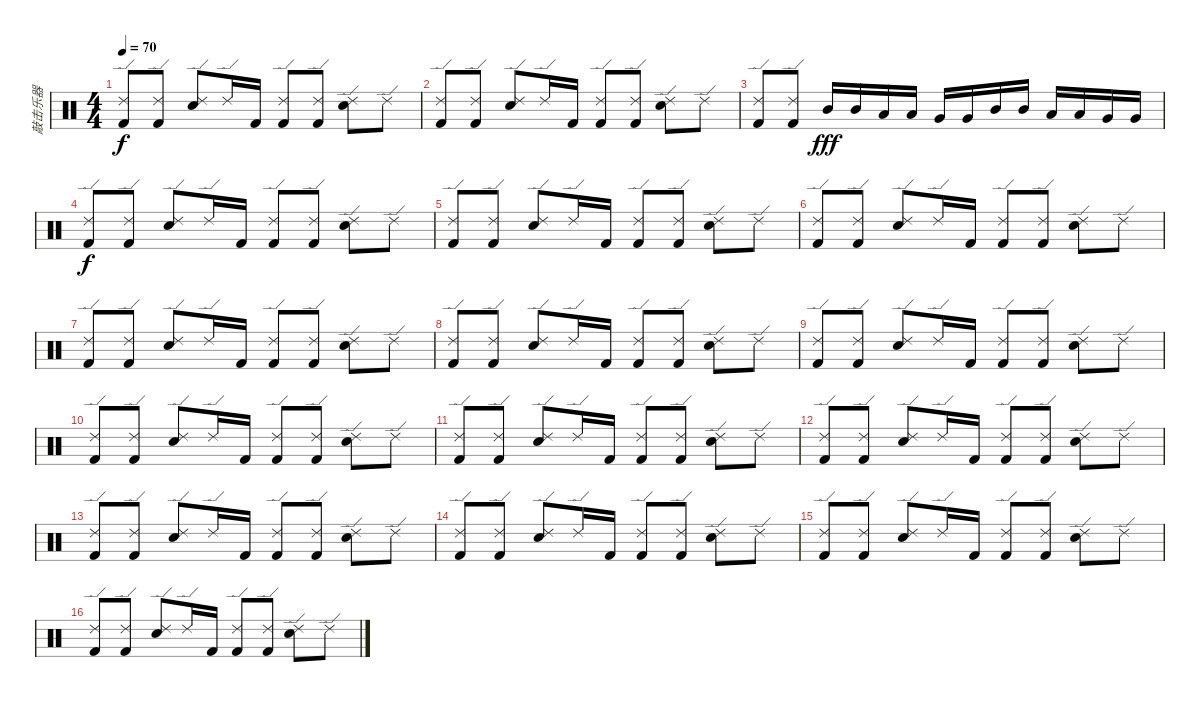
\track ("敲击乐器" "敲击乐器") {instrument percussion}
\staff {score}
\articulation defaults
\ts (4 4)
\tempo 70
\clef neutral
\ks c
("Ride (edge) 2" "Kick (hit) 2").8{dy f} ("Ride (edge) 2" "Kick (hit) 2").8 ("Ride (edge) 2" "Snare (hit) 2").8 "Ride (edge) 2".16 "Kick (hit) 2".16 ("Ride (edge) 2" "Kick (hit) 2").8 ("Ride (edge) 2" "Kick (hit) 2").8 ("Ride (edge) 2" "Snare (hit) 2").8 "Ride (edge) 2".8 |
("Ride (edge) 2" "Kick (hit) 2").8 ("Ride (edge) 2" "Kick (hit) 2").8 ("Ride (edge) 2" "Snare (hit) 2").8 "Ride (edge) 2".16 "Kick (hit) 2".16 ("Ride (edge) 2" "Kick (hit) 2").8 ("Ride (edge) 2" "Kick (hit) 2").8 ("Ride (edge) 2" "Snare (hit) 2").8 "Ride (edge) 2".8 |
("Ride (edge) 2" "Kick (hit) 2").8 ("Ride (edge) 2" "Kick (hit) 2").8 "Mid Tom (hit)".16{dy fff} "Mid Tom (hit)".16 "Low Tom (hit)".16 "Low Tom (hit)".16 "Very Low Tom (hit)".16 "Very Low Tom (hit)".16 "Mid Tom (hit)".16 "Mid Tom (hit)".16 "Low Tom (hit)".16 "Low Tom (hit)".16 "Very Low Tom (hit)".16 "Very Low Tom (hit)".16 |
("Ride (edge) 2" "Kick (hit) 2").8{dy f} ("Ride (edge) 2" "Kick (hit) 2").8 ("Ride (edge) 2" "Snare (hit) 2").8 "Ride (edge) 2".16 "Kick (hit) 2".16 ("Ride (edge) 2" "Kick (hit) 2").8 ("Ride (edge) 2" "Kick (hit) 2").8 ("Ride (edge) 2" "Snare (hit) 2").8 "Ride (edge) 2".8 |
("Ride (edge) 2" "Kick (hit) 2").8 ("Ride (edge) 2" "Kick (hit) 2").8 ("Ride (edge) 2" "Snare (hit) 2").8 "Ride (edge) 2".16 "Kick (hit) 2".16 ("Ride (edge) 2" "Kick (hit) 2").8 ("Ride (edge) 2" "Kick (hit) 2").8 ("Ride (edge) 2" "Snare (hit) 2").8 "Ride (edge) 2".8 |
("Ride (edge) 2" "Kick (hit) 2").8 ("Ride (edge) 2" "Kick (hit) 2").8 ("Ride (edge) 2" "Snare (hit) 2").8 "Ride (edge) 2".16 "Kick (hit) 2".16 ("Ride (edge) 2" "Kick (hit) 2").8 ("Ride (edge) 2" "Kick (hit) 2").8 ("Ride (edge) 2" "Snare (hit) 2").8 "Ride (edge) 2".8 |
("Ride (edge) 2" "Kick (hit) 2").8 ("Ride (edge) 2" "Kick (hit) 2").8 ("Ride (edge) 2" "Snare (hit) 2").8 "Ride (edge) 2".16 "Kick (hit) 2".16 ("Ride (edge) 2" "Kick (hit) 2").8 ("Ride (edge) 2" "Kick (hit) 2").8 ("Ride (edge) 2" "Snare (hit) 2").8 "Ride (edge) 2".8 |
("Ride (edge) 2" "Kick (hit) 2").8 ("Ride (edge) 2" "Kick (hit) 2").8 ("Ride (edge) 2" "Snare (hit) 2").8 "Ride (edge) 2".16 "Kick (hit) 2".16 ("Ride (edge) 2" "Kick (hit) 2").8 ("Ride (edge) 2" "Kick (hit) 2").8 ("Ride (edge) 2" "Snare (hit) 2").8 "Ride (edge) 2".8 |
("Ride (edge) 2" "Kick (hit) 2").8 ("Ride (edge) 2" "Kick (hit) 2").8 ("Ride (edge) 2" "Snare (hit) 2").8 "Ride (edge) 2".16 "Kick (hit) 2".16 ("Ride (edge) 2" "Kick (hit) 2").8 ("Ride (edge) 2" "Kick (hit) 2").8 ("Ride (edge) 2" "Snare (hit) 2").8 "Ride (edge) 2".8 |
("Ride (edge) 2" "Kick (hit) 2").8 ("Ride (edge) 2" "Kick (hit) 2").8 ("Ride (edge) 2" "Snare (hit) 2").8 "Ride (edge) 2".16 "Kick (hit) 2".16 ("Ride (edge) 2" "Kick (hit) 2").8 ("Ride (edge) 2" "Kick (hit) 2").8 ("Ride (edge) 2" "Snare (hit) 2").8 "Ride (edge) 2".8 |
("Ride (edge) 2" "Kick (hit) 2").8 ("Ride (edge) 2" "Kick (hit) 2").8 ("Ride (edge) 2" "Snare (hit) 2").8 "Ride (edge) 2".16 "Kick (hit) 2".16 ("Ride (edge) 2" "Kick (hit) 2").8 ("Ride (edge) 2" "Kick (hit) 2").8 ("Ride (edge) 2" "Snare (hit) 2").8 "Ride (edge) 2".8 |
("Ride (edge) 2" "Kick (hit) 2").8 ("Ride (edge) 2" "Kick (hit) 2").8 ("Ride (edge) 2" "Snare (hit) 2").8 "Ride (edge) 2".16 "Kick (hit) 2".16 ("Ride (edge) 2" "Kick (hit) 2").8 ("Ride (edge) 2" "Kick (hit) 2").8 ("Ride (edge) 2" "Snare (hit) 2").8 "Ride (edge) 2".8 |
("Ride (edge) 2" "Kick (hit) 2").8 ("Ride (edge) 2" "Kick (hit) 2").8 ("Ride (edge) 2" "Snare (hit) 2").8 "Ride (edge) 2".16 "Kick (hit) 2".16 ("Ride (edge) 2" "Kick (hit) 2").8 ("Ride (edge) 2" "Kick (hit) 2").8 ("Ride (edge) 2" "Snare (hit) 2").8 "Ride (edge) 2".8 |
("Ride (edge) 2" "Kick (hit) 2").8 ("Ride (edge) 2" "Kick (hit) 2").8 ("Ride (edge) 2" "Snare (hit) 2").8 "Ride (edge) 2".16 "Kick (hit) 2".16 ("Ride (edge) 2" "Kick (hit) 2").8 ("Ride (edge) 2" "Kick (hit) 2").8 ("Ride (edge) 2" "Snare (hit) 2").8 "Ride (edge) 2".8 |
("Ride (edge) 2" "Kick (hit) 2").8 ("Ride (edge) 2" "Kick (hit) 2").8 ("Ride (edge) 2" "Snare (hit) 2").8 "Ride (edge) 2".16 "Kick (hit) 2".16 ("Ride (edge) 2" "Kick (hit) 2").8 ("Ride (edge) 2" "Kick (hit) 2").8 ("Ride (edge) 2" "Snare (hit) 2").8 "Ride (edge) 2".8 |
("Ride (edge) 2" "Kick (hit) 2").8 ("Ride (edge) 2" "Kick (hit) 2").8 ("Ride (edge) 2" "Snare (hit) 2").8 "Ride (edge) 2".16 "Kick (hit) 2".16 ("Ride (edge) 2" "Kick (hit) 2").8 ("Ride (edge) 2" "Kick (hit) 2").8 ("Ride (edge) 2" "Snare (hit) 2").8 "Ride (edge) 2".8
